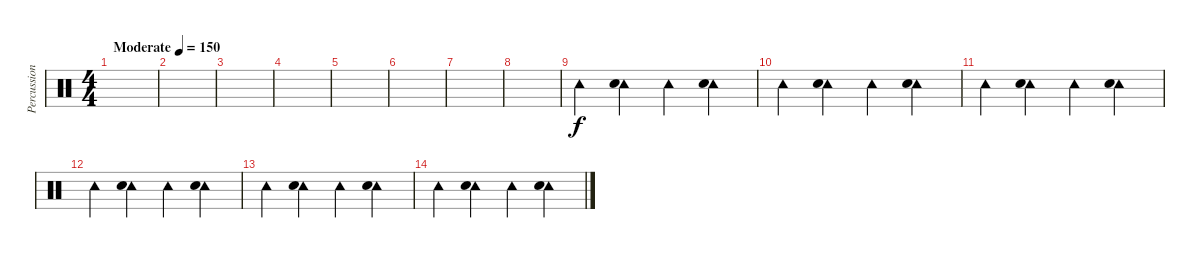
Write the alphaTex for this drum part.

\track ("Percussion" "Percussion") {instrument percussion}
\staff {score}
\articulation defaults
\ts (4 4)
\tempo (150 "Moderate")
\clef neutral
\ks c
|
|
|
|
|
|
|
|
"Tambourine (hit)".4 ("Tambourine (hit)" "Hand Clap (hit)").4 "Tambourine (hit)".4 ("Tambourine (hit)" "Hand Clap (hit)").4 |
"Tambourine (hit)".4 ("Tambourine (hit)" "Hand Clap (hit)").4 "Tambourine (hit)".4 ("Tambourine (hit)" "Hand Clap (hit)").4 |
"Tambourine (hit)".4 ("Tambourine (hit)" "Hand Clap (hit)").4 "Tambourine (hit)".4 ("Tambourine (hit)" "Hand Clap (hit)").4 |
"Tambourine (hit)".4 ("Tambourine (hit)" "Hand Clap (hit)").4 "Tambourine (hit)".4 ("Tambourine (hit)" "Hand Clap (hit)").4 |
"Tambourine (hit)".4 ("Tambourine (hit)" "Hand Clap (hit)").4 "Tambourine (hit)".4 ("Tambourine (hit)" "Hand Clap (hit)").4 |
"Tambourine (hit)".4 ("Tambourine (hit)" "Hand Clap (hit)").4 "Tambourine (hit)".4 ("Tambourine (hit)" "Hand Clap (hit)").4
